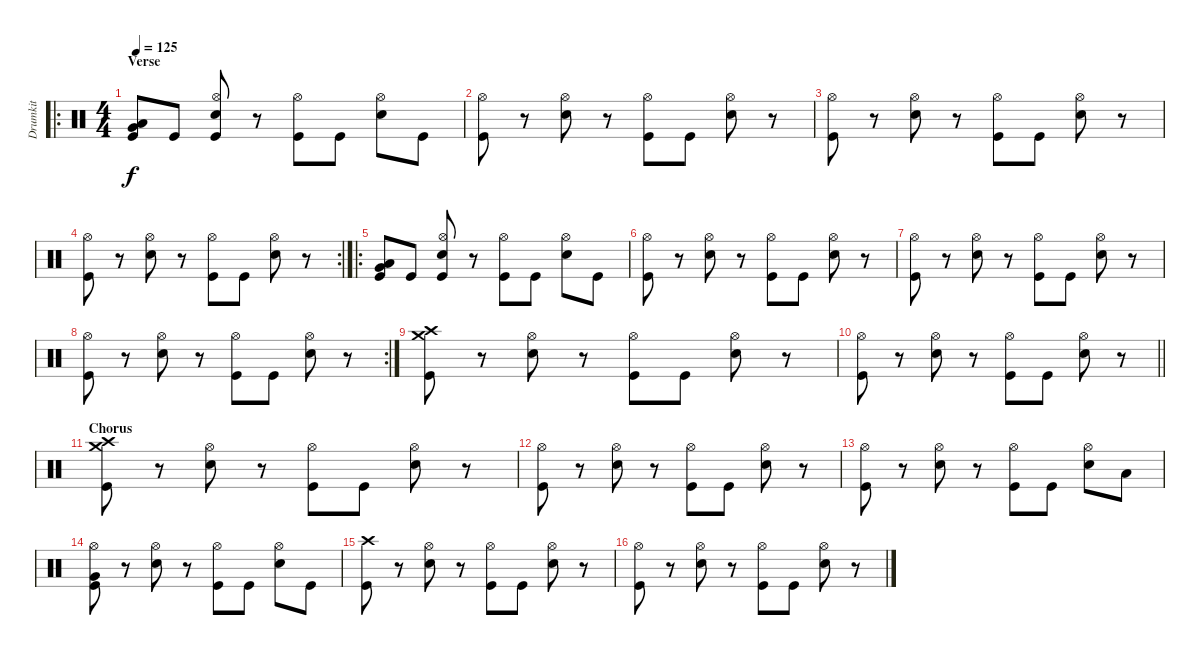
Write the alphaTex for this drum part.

\track ("Drumkit" "Drumkit") {instrument percussion}
\staff {score}
\articulation defaults
\ro
\ts (4 4)
\section ("" "Verse")
\tempo 125
\clef neutral
\ks c
("Very Low Tom (hit)" "Low Tom (hit)" "Kick (hit)").8{dy f} "Kick (hit)".8 ("Hi-Hat (open)" "Snare (hit) 2" "Kick (hit)").8 r.8 ("Hi-Hat (open)" "Kick (hit)").8 "Kick (hit)".8 ("Hi-Hat (open)" "Snare (hit) 2").8 "Kick (hit)".8 |
("Hi-Hat (open)" "Kick (hit)").8 r.8 ("Hi-Hat (open)" "Snare (hit) 2").8 r.8 ("Hi-Hat (open)" "Kick (hit)").8 "Kick (hit)".8 ("Hi-Hat (open)" "Snare (hit) 2").8 r.8 |
("Hi-Hat (open)" "Kick (hit)").8 r.8 ("Hi-Hat (open)" "Snare (hit) 2").8 r.8 ("Hi-Hat (open)" "Kick (hit)").8 "Kick (hit)".8 ("Hi-Hat (open)" "Snare (hit) 2").8 r.8 |
\rc 2
("Hi-Hat (open)" "Kick (hit)").8 r.8 ("Hi-Hat (open)" "Snare (hit) 2").8 r.8 ("Hi-Hat (open)" "Kick (hit)").8 "Kick (hit)".8 ("Hi-Hat (open)" "Snare (hit) 2").8 r.8 |
\ro
("Very Low Tom (hit)" "Low Tom (hit)" "Kick (hit)").8 "Kick (hit)".8 ("Hi-Hat (open)" "Snare (hit) 2" "Kick (hit)").8 r.8 ("Hi-Hat (open)" "Kick (hit)").8 "Kick (hit)".8 ("Hi-Hat (open)" "Snare (hit) 2").8 "Kick (hit)".8 |
("Hi-Hat (open)" "Kick (hit)").8 r.8 ("Hi-Hat (open)" "Snare (hit) 2").8 r.8 ("Hi-Hat (open)" "Kick (hit)").8 "Kick (hit)".8 ("Hi-Hat (open)" "Snare (hit) 2").8 r.8 |
("Hi-Hat (open)" "Kick (hit)").8 r.8 ("Hi-Hat (open)" "Snare (hit) 2").8 r.8 ("Hi-Hat (open)" "Kick (hit)").8 "Kick (hit)".8 ("Hi-Hat (open)" "Snare (hit) 2").8 r.8 |
\rc 2
("Hi-Hat (open)" "Kick (hit)").8 r.8 ("Hi-Hat (open)" "Snare (hit) 2").8 r.8 ("Hi-Hat (open)" "Kick (hit)").8 "Kick (hit)".8 ("Hi-Hat (open)" "Snare (hit) 2").8 r.8 |
("Crash medium (hit)" "Crash high (hit)" "Kick (hit)").8 r.8 ("Hi-Hat (open)" "Snare (hit) 2").8 r.8 ("Hi-Hat (open)" "Kick (hit)").8 "Kick (hit)".8 ("Hi-Hat (open)" "Snare (hit) 2").8 r.8 |
\barLineRight lightlight
("Hi-Hat (open)" "Kick (hit)").8 r.8 ("Hi-Hat (open)" "Snare (hit) 2").8 r.8 ("Hi-Hat (open)" "Kick (hit)").8 "Kick (hit)".8 ("Hi-Hat (open)" "Snare (hit) 2").8 r.8 |
\section ("" "Chorus")
("Crash medium (hit)" "Crash high (hit)" "Kick (hit)").8 r.8 ("Hi-Hat (open)" "Snare (hit) 2").8 r.8 ("Hi-Hat (open)" "Kick (hit)").8 "Kick (hit)".8 ("Hi-Hat (open)" "Snare (hit) 2").8 r.8 |
("Hi-Hat (open)" "Kick (hit)").8 r.8 ("Hi-Hat (open)" "Snare (hit) 2").8 r.8 ("Hi-Hat (open)" "Kick (hit)").8 "Kick (hit)".8 ("Hi-Hat (open)" "Snare (hit) 2").8 r.8 |
("Hi-Hat (open)" "Kick (hit)").8 r.8 ("Hi-Hat (open)" "Snare (hit) 2").8 r.8 ("Hi-Hat (open)" "Kick (hit)").8 "Kick (hit)".8 ("Hi-Hat (open)" "Snare (hit) 2").8 "Low Tom (hit)".8 |
("Hi-Hat (open)" "Very Low Tom (hit)" "Kick (hit)").8 r.8 ("Hi-Hat (open)" "Snare (hit) 2").8 r.8 ("Hi-Hat (open)" "Kick (hit)").8 "Kick (hit)".8 ("Hi-Hat (open)" "Snare (hit) 2").8 "Kick (hit)".8 |
("Crash high (hit)" "Kick (hit)").8 r.8 ("Hi-Hat (open)" "Snare (hit) 2").8 r.8 ("Hi-Hat (open)" "Kick (hit)").8 "Kick (hit)".8 ("Hi-Hat (open)" "Snare (hit) 2").8 r.8 |
("Hi-Hat (open)" "Kick (hit)").8 r.8 ("Hi-Hat (open)" "Snare (hit) 2").8 r.8 ("Hi-Hat (open)" "Kick (hit)").8 "Kick (hit)".8 ("Hi-Hat (open)" "Snare (hit) 2").8 r.8
